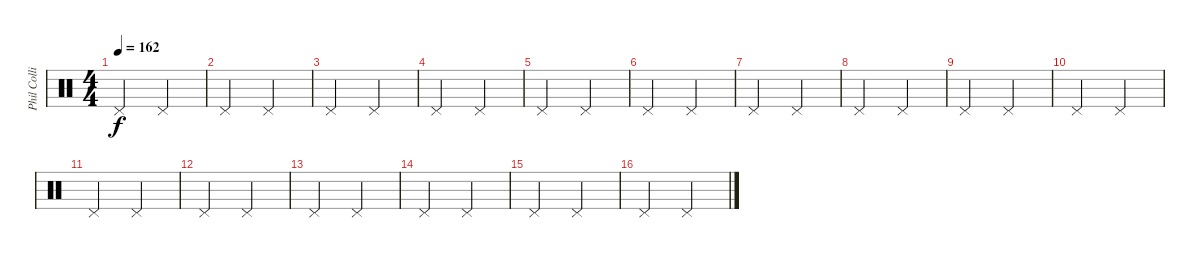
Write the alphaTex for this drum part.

\track ("Phil Collins (drums)" "Phil Colli") {instrument percussion}
\staff {score}
\articulation defaults
\ts (4 4)
\tempo 162
\clef neutral
\ks c "Pedal Hi-Hat (hit)".2{dy f} "Pedal Hi-Hat (hit)".2
|
"Pedal Hi-Hat (hit)".2 "Pedal Hi-Hat (hit)".2 |
"Pedal Hi-Hat (hit)".2 "Pedal Hi-Hat (hit)".2 |
"Pedal Hi-Hat (hit)".2 "Pedal Hi-Hat (hit)".2 |
"Pedal Hi-Hat (hit)".2 "Pedal Hi-Hat (hit)".2 |
"Pedal Hi-Hat (hit)".2 "Pedal Hi-Hat (hit)".2 |
"Pedal Hi-Hat (hit)".2 "Pedal Hi-Hat (hit)".2 |
"Pedal Hi-Hat (hit)".2 "Pedal Hi-Hat (hit)".2 |
"Pedal Hi-Hat (hit)".2 "Pedal Hi-Hat (hit)".2 |
"Pedal Hi-Hat (hit)".2 "Pedal Hi-Hat (hit)".2 |
"Pedal Hi-Hat (hit)".2 "Pedal Hi-Hat (hit)".2 |
"Pedal Hi-Hat (hit)".2 "Pedal Hi-Hat (hit)".2 |
"Pedal Hi-Hat (hit)".2 "Pedal Hi-Hat (hit)".2 |
"Pedal Hi-Hat (hit)".2 "Pedal Hi-Hat (hit)".2 |
"Pedal Hi-Hat (hit)".2 "Pedal Hi-Hat (hit)".2 |
"Pedal Hi-Hat (hit)".2 "Pedal Hi-Hat (hit)".2
